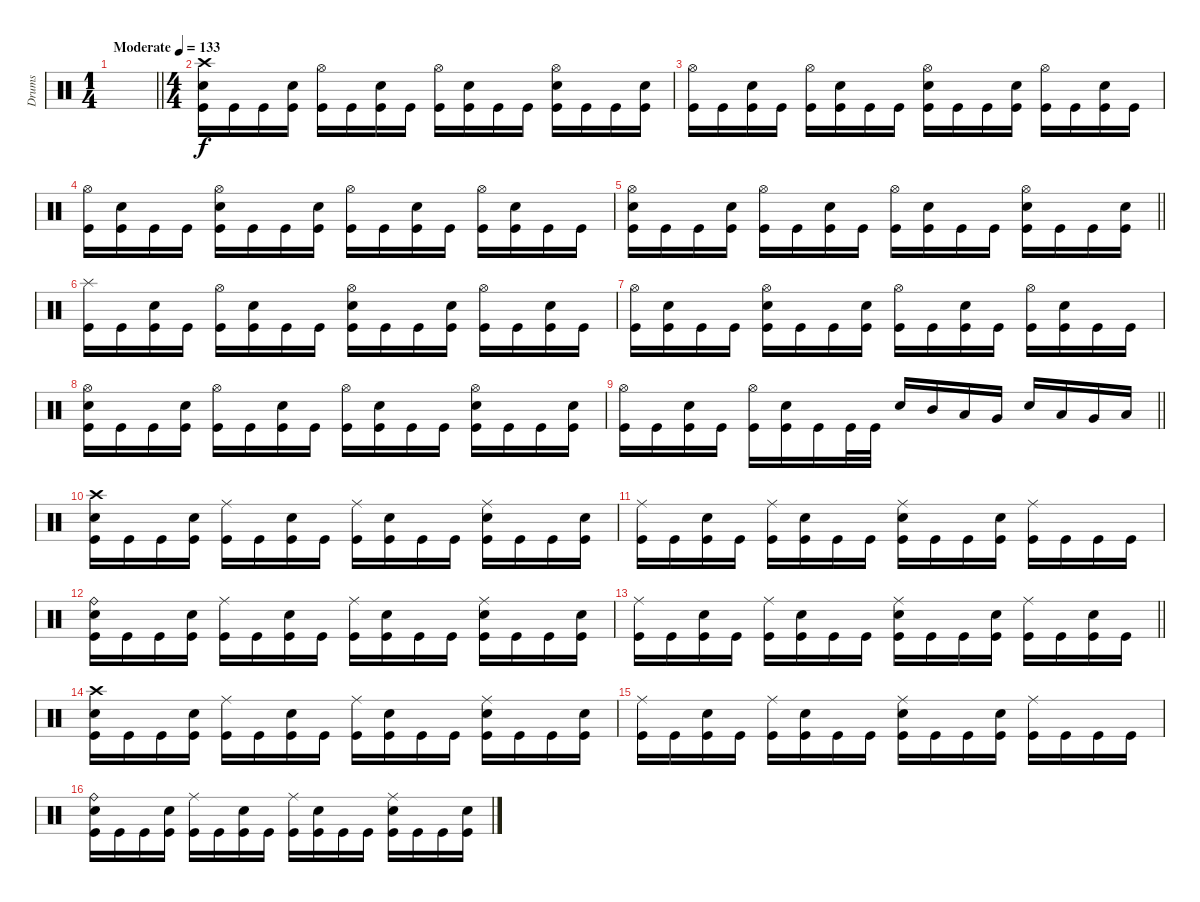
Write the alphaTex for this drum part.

\track ("Drums" "Drums") {instrument percussion}
\staff
\articulation defaults
\ts (1 4)
\tempo (133 "Moderate")
\clef neutral
\barLineRight lightlight
\ks c
|
\ts (4 4)
("Crash high (hit)" "Electric Snare (hit)" "Kick (hit)").16 "Kick (hit)".16 "Kick (hit)".16 ("Electric Snare (hit)" "Kick (hit)").16 ("Hi-Hat (open)" "Kick (hit)").16 "Kick (hit)".16 ("Electric Snare (hit)" "Kick (hit)").16 "Kick (hit)".16 ("Hi-Hat (open)" "Kick (hit)").16 ("Electric Snare (hit)" "Kick (hit)").16 "Kick (hit)".16 "Kick (hit)".16 ("Hi-Hat (open)" "Electric Snare (hit)" "Kick (hit)").16 "Kick (hit)".16 "Kick (hit)".16 ("Electric Snare (hit)" "Kick (hit)").16 |
("Hi-Hat (open)" "Kick (hit)").16 "Kick (hit)".16 ("Electric Snare (hit)" "Kick (hit)").16 "Kick (hit)".16 ("Hi-Hat (open)" "Kick (hit)").16 ("Electric Snare (hit)" "Kick (hit)").16 "Kick (hit)".16 "Kick (hit)".16 ("Hi-Hat (open)" "Electric Snare (hit)" "Kick (hit)").16 "Kick (hit)".16 "Kick (hit)".16 ("Electric Snare (hit)" "Kick (hit)").16 ("Hi-Hat (open)" "Kick (hit)").16 "Kick (hit)".16 ("Electric Snare (hit)" "Kick (hit)").16 "Kick (hit)".16 |
("Hi-Hat (open)" "Kick (hit)").16 ("Electric Snare (hit)" "Kick (hit)").16 "Kick (hit)".16 "Kick (hit)".16 ("Hi-Hat (open)" "Electric Snare (hit)" "Kick (hit)").16 "Kick (hit)".16 "Kick (hit)".16 ("Electric Snare (hit)" "Kick (hit)").16 ("Hi-Hat (open)" "Kick (hit)").16 "Kick (hit)".16 ("Electric Snare (hit)" "Kick (hit)").16 "Kick (hit)".16 ("Hi-Hat (open)" "Kick (hit)").16 ("Electric Snare (hit)" "Kick (hit)").16 "Kick (hit)".16 "Kick (hit)".16 |
\barLineRight lightlight
("Hi-Hat (open)" "Electric Snare (hit)" "Kick (hit)").16 "Kick (hit)".16 "Kick (hit)".16 ("Electric Snare (hit)" "Kick (hit)").16 ("Hi-Hat (open)" "Kick (hit)").16 "Kick (hit)".16 ("Electric Snare (hit)" "Kick (hit)").16 "Kick (hit)".16 ("Hi-Hat (open)" "Kick (hit)").16 ("Electric Snare (hit)" "Kick (hit)").16 "Kick (hit)".16 "Kick (hit)".16 ("Hi-Hat (open)" "Electric Snare (hit)" "Kick (hit)").16 "Kick (hit)".16 "Kick (hit)".16 ("Electric Snare (hit)" "Kick (hit)").16 |
("Splash (hit)" "Kick (hit)").16 "Kick (hit)".16 ("Electric Snare (hit)" "Kick (hit)").16 "Kick (hit)".16 ("Hi-Hat (open)" "Kick (hit)").16 ("Electric Snare (hit)" "Kick (hit)").16 "Kick (hit)".16 "Kick (hit)".16 ("Hi-Hat (open)" "Electric Snare (hit)" "Kick (hit)").16 "Kick (hit)".16 "Kick (hit)".16 ("Electric Snare (hit)" "Kick (hit)").16 ("Hi-Hat (open)" "Kick (hit)").16 "Kick (hit)".16 ("Electric Snare (hit)" "Kick (hit)").16 "Kick (hit)".16 |
("Hi-Hat (open)" "Kick (hit)").16 ("Electric Snare (hit)" "Kick (hit)").16 "Kick (hit)".16 "Kick (hit)".16 ("Hi-Hat (open)" "Electric Snare (hit)" "Kick (hit)").16 "Kick (hit)".16 "Kick (hit)".16 ("Electric Snare (hit)" "Kick (hit)").16 ("Hi-Hat (open)" "Kick (hit)").16 "Kick (hit)".16 ("Electric Snare (hit)" "Kick (hit)").16 "Kick (hit)".16 ("Hi-Hat (open)" "Kick (hit)").16 ("Electric Snare (hit)" "Kick (hit)").16 "Kick (hit)".16 "Kick (hit)".16 |
("Hi-Hat (open)" "Electric Snare (hit)" "Kick (hit)").16 "Kick (hit)".16 "Kick (hit)".16 ("Electric Snare (hit)" "Kick (hit)").16 ("Hi-Hat (open)" "Kick (hit)").16 "Kick (hit)".16 ("Electric Snare (hit)" "Kick (hit)").16 "Kick (hit)".16 ("Hi-Hat (open)" "Kick (hit)").16 ("Electric Snare (hit)" "Kick (hit)").16 "Kick (hit)".16 "Kick (hit)".16 ("Hi-Hat (open)" "Electric Snare (hit)" "Kick (hit)").16 "Kick (hit)".16 "Kick (hit)".16 ("Electric Snare (hit)" "Kick (hit)").16 |
\barLineRight lightlight
("Hi-Hat (open)" "Kick (hit)").16 "Kick (hit)".16 ("Electric Snare (hit)" "Kick (hit)").16 "Kick (hit)".16 ("Hi-Hat (open)" "Kick (hit)").16 ("Electric Snare (hit)" "Kick (hit)").16 "Kick (hit)".16 "Kick (hit)".32 "Kick (hit)".32 "Electric Snare (hit)".16 "Mid Tom (hit)".16 "Low Tom (hit)".16 "Very Low Tom (hit)".16 "Electric Snare (hit)".16 "Low Tom (hit)".16 "Very Low Tom (hit)".16 "Low Floor Tom (hit)".16 |
\section ("" "")
("Crash high (hit)" "Electric Snare (hit)" "Kick (hit)").16 "Kick (hit)".16 "Kick (hit)".16 ("Electric Snare (hit)" "Kick (hit)").16 ("Ride (middle)" "Kick (hit)").16 "Kick (hit)".16 ("Electric Snare (hit)" "Kick (hit)").16 "Kick (hit)".16 ("Ride (middle)" "Kick (hit)").16 ("Electric Snare (hit)" "Kick (hit)").16 "Kick (hit)".16 "Kick (hit)".16 ("Ride (middle)" "Electric Snare (hit)" "Kick (hit)").16 "Kick (hit)".16 "Kick (hit)".16 ("Electric Snare (hit)" "Kick (hit)").16 |
("Ride (middle)" "Kick (hit)").16 "Kick (hit)".16 ("Electric Snare (hit)" "Kick (hit)").16 "Kick (hit)".16 ("Ride (middle)" "Kick (hit)").16 ("Electric Snare (hit)" "Kick (hit)").16 "Kick (hit)".16 "Kick (hit)".16 ("Ride (middle)" "Electric Snare (hit)" "Kick (hit)").16 "Kick (hit)".16 "Kick (hit)".16 ("Electric Snare (hit)" "Kick (hit)").16 ("Ride (middle)" "Kick (hit)").16 "Kick (hit)".16 "Kick (hit)".16 "Kick (hit)".16 |
("Ride (bell)" "Electric Snare (hit)" "Kick (hit)").16 "Kick (hit)".16 "Kick (hit)".16 ("Electric Snare (hit)" "Kick (hit)").16 ("Ride (middle)" "Kick (hit)").16 "Kick (hit)".16 ("Electric Snare (hit)" "Kick (hit)").16 "Kick (hit)".16 ("Ride (middle)" "Kick (hit)").16 ("Electric Snare (hit)" "Kick (hit)").16 "Kick (hit)".16 "Kick (hit)".16 ("Ride (middle)" "Electric Snare (hit)" "Kick (hit)").16 "Kick (hit)".16 "Kick (hit)".16 ("Electric Snare (hit)" "Kick (hit)").16 |
\barLineRight lightlight
("Ride (middle)" "Kick (hit)").16 "Kick (hit)".16 ("Electric Snare (hit)" "Kick (hit)").16 "Kick (hit)".16 ("Ride (middle)" "Kick (hit)").16 ("Electric Snare (hit)" "Kick (hit)").16 "Kick (hit)".16 "Kick (hit)".16 ("Ride (middle)" "Electric Snare (hit)" "Kick (hit)").16 "Kick (hit)".16 "Kick (hit)".16 ("Electric Snare (hit)" "Kick (hit)").16 ("Ride (middle)" "Kick (hit)").16 "Kick (hit)".16 ("Electric Snare (hit)" "Kick (hit)").16 "Kick (hit)".16 |
("Crash high (hit)" "Electric Snare (hit)" "Kick (hit)").16 "Kick (hit)".16 "Kick (hit)".16 ("Electric Snare (hit)" "Kick (hit)").16 ("Ride (middle)" "Kick (hit)").16 "Kick (hit)".16 ("Electric Snare (hit)" "Kick (hit)").16 "Kick (hit)".16 ("Ride (middle)" "Kick (hit)").16 ("Electric Snare (hit)" "Kick (hit)").16 "Kick (hit)".16 "Kick (hit)".16 ("Ride (middle)" "Electric Snare (hit)" "Kick (hit)").16 "Kick (hit)".16 "Kick (hit)".16 ("Electric Snare (hit)" "Kick (hit)").16 |
("Ride (middle)" "Kick (hit)").16 "Kick (hit)".16 ("Electric Snare (hit)" "Kick (hit)").16 "Kick (hit)".16 ("Ride (middle)" "Kick (hit)").16 ("Electric Snare (hit)" "Kick (hit)").16 "Kick (hit)".16 "Kick (hit)".16 ("Ride (middle)" "Electric Snare (hit)" "Kick (hit)").16 "Kick (hit)".16 "Kick (hit)".16 ("Electric Snare (hit)" "Kick (hit)").16 ("Ride (middle)" "Kick (hit)").16 "Kick (hit)".16 "Kick (hit)".16 "Kick (hit)".16 |
("Ride (bell)" "Electric Snare (hit)" "Kick (hit)").16 "Kick (hit)".16 "Kick (hit)".16 ("Electric Snare (hit)" "Kick (hit)").16 ("Ride (middle)" "Kick (hit)").16 "Kick (hit)".16 ("Electric Snare (hit)" "Kick (hit)").16 "Kick (hit)".16 ("Ride (middle)" "Kick (hit)").16 ("Electric Snare (hit)" "Kick (hit)").16 "Kick (hit)".16 "Kick (hit)".16 ("Ride (middle)" "Electric Snare (hit)" "Kick (hit)").16 "Kick (hit)".16 "Kick (hit)".16 ("Electric Snare (hit)" "Kick (hit)").16
